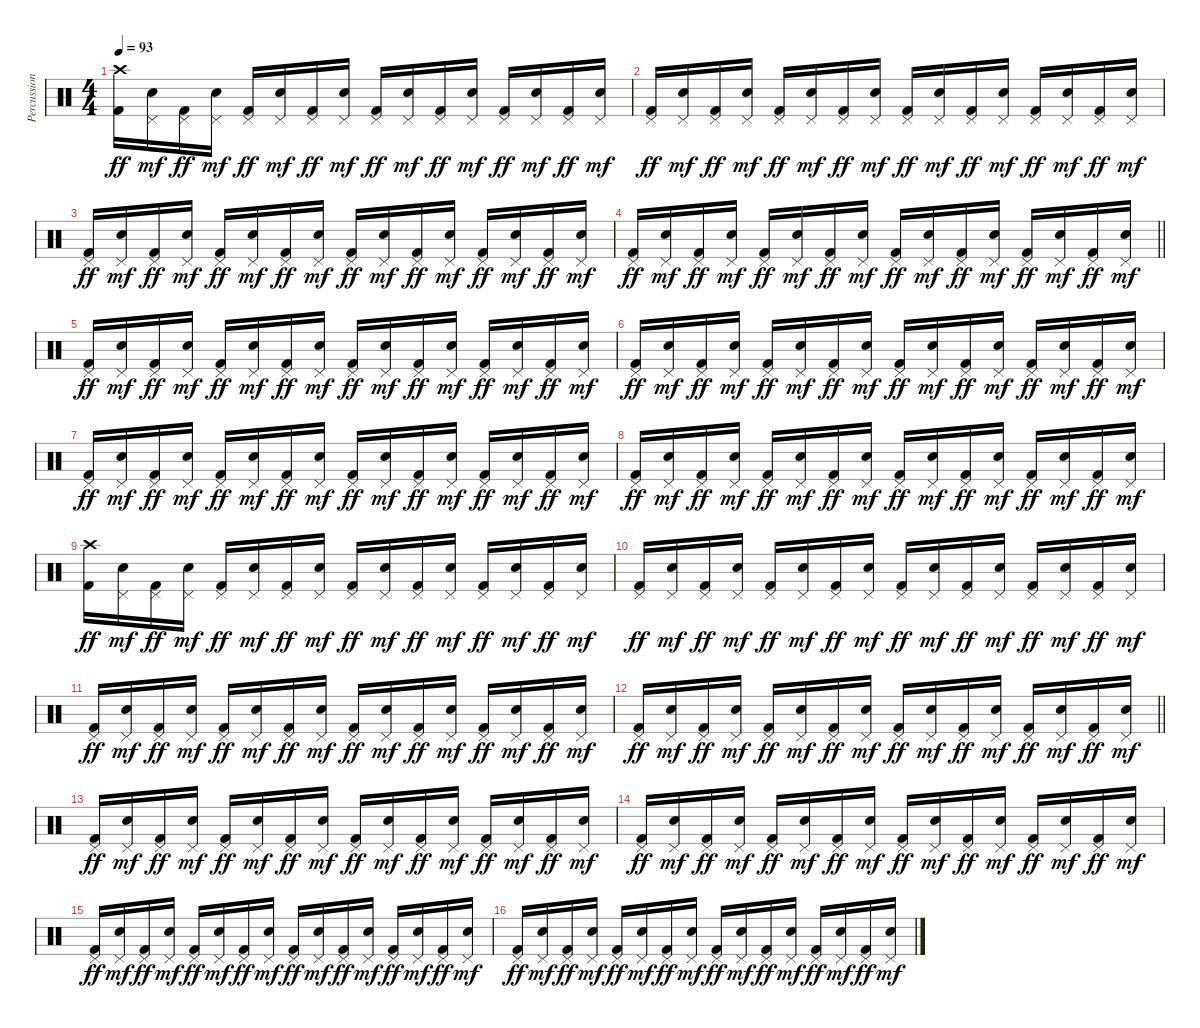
\track ("Percussion" "Percussion") {instrument percussion}
\staff {score}
\articulation defaults
\ts (4 4)
\tempo 93
\clef neutral
\ks c
("Crash high (hit)" "Kick (hit) 2").16{dy ff} ("Pedal Hi-Hat (hit)" "Electric Snare (hit)").16{dy mf} ("Pedal Hi-Hat (hit)" "Kick (hit) 2").16{dy ff} ("Pedal Hi-Hat (hit)" "Electric Snare (hit)").16{dy mf} ("Pedal Hi-Hat (hit)" "Kick (hit) 2").16{dy ff} ("Pedal Hi-Hat (hit)" "Electric Snare (hit)").16{dy mf} ("Pedal Hi-Hat (hit)" "Kick (hit) 2").16{dy ff} ("Pedal Hi-Hat (hit)" "Electric Snare (hit)").16{dy mf} ("Pedal Hi-Hat (hit)" "Kick (hit) 2").16{dy ff} ("Pedal Hi-Hat (hit)" "Electric Snare (hit)").16{dy mf} ("Pedal Hi-Hat (hit)" "Kick (hit) 2").16{dy ff} ("Pedal Hi-Hat (hit)" "Electric Snare (hit)").16{dy mf} ("Pedal Hi-Hat (hit)" "Kick (hit) 2").16{dy ff} ("Pedal Hi-Hat (hit)" "Electric Snare (hit)").16{dy mf} ("Pedal Hi-Hat (hit)" "Kick (hit) 2").16{dy ff} ("Pedal Hi-Hat (hit)" "Electric Snare (hit)").16{dy mf} |
("Pedal Hi-Hat (hit)" "Kick (hit) 2").16{dy ff} ("Pedal Hi-Hat (hit)" "Electric Snare (hit)").16{dy mf} ("Pedal Hi-Hat (hit)" "Kick (hit) 2").16{dy ff} ("Pedal Hi-Hat (hit)" "Electric Snare (hit)").16{dy mf} ("Pedal Hi-Hat (hit)" "Kick (hit) 2").16{dy ff} ("Pedal Hi-Hat (hit)" "Electric Snare (hit)").16{dy mf} ("Pedal Hi-Hat (hit)" "Kick (hit) 2").16{dy ff} ("Pedal Hi-Hat (hit)" "Electric Snare (hit)").16{dy mf} ("Pedal Hi-Hat (hit)" "Kick (hit) 2").16{dy ff} ("Pedal Hi-Hat (hit)" "Electric Snare (hit)").16{dy mf} ("Pedal Hi-Hat (hit)" "Kick (hit) 2").16{dy ff} ("Pedal Hi-Hat (hit)" "Electric Snare (hit)").16{dy mf} ("Pedal Hi-Hat (hit)" "Kick (hit) 2").16{dy ff} ("Pedal Hi-Hat (hit)" "Electric Snare (hit)").16{dy mf} ("Pedal Hi-Hat (hit)" "Kick (hit) 2").16{dy ff} ("Pedal Hi-Hat (hit)" "Electric Snare (hit)").16{dy mf} |
("Pedal Hi-Hat (hit)" "Kick (hit) 2").16{dy ff} ("Pedal Hi-Hat (hit)" "Electric Snare (hit)").16{dy mf} ("Pedal Hi-Hat (hit)" "Kick (hit) 2").16{dy ff} ("Pedal Hi-Hat (hit)" "Electric Snare (hit)").16{dy mf} ("Pedal Hi-Hat (hit)" "Kick (hit) 2").16{dy ff} ("Pedal Hi-Hat (hit)" "Electric Snare (hit)").16{dy mf} ("Pedal Hi-Hat (hit)" "Kick (hit) 2").16{dy ff} ("Pedal Hi-Hat (hit)" "Electric Snare (hit)").16{dy mf} ("Pedal Hi-Hat (hit)" "Kick (hit) 2").16{dy ff} ("Pedal Hi-Hat (hit)" "Electric Snare (hit)").16{dy mf} ("Pedal Hi-Hat (hit)" "Kick (hit) 2").16{dy ff} ("Pedal Hi-Hat (hit)" "Electric Snare (hit)").16{dy mf} ("Pedal Hi-Hat (hit)" "Kick (hit) 2").16{dy ff} ("Pedal Hi-Hat (hit)" "Electric Snare (hit)").16{dy mf} ("Pedal Hi-Hat (hit)" "Kick (hit) 2").16{dy ff} ("Pedal Hi-Hat (hit)" "Electric Snare (hit)").16{dy mf} |
\barLineRight lightlight
("Pedal Hi-Hat (hit)" "Kick (hit) 2").16{dy ff} ("Pedal Hi-Hat (hit)" "Electric Snare (hit)").16{dy mf} ("Pedal Hi-Hat (hit)" "Kick (hit) 2").16{dy ff} ("Pedal Hi-Hat (hit)" "Electric Snare (hit)").16{dy mf} ("Pedal Hi-Hat (hit)" "Kick (hit) 2").16{dy ff} ("Pedal Hi-Hat (hit)" "Electric Snare (hit)").16{dy mf} ("Pedal Hi-Hat (hit)" "Kick (hit) 2").16{dy ff} ("Pedal Hi-Hat (hit)" "Electric Snare (hit)").16{dy mf} ("Pedal Hi-Hat (hit)" "Kick (hit) 2").16{dy ff} ("Pedal Hi-Hat (hit)" "Electric Snare (hit)").16{dy mf} ("Pedal Hi-Hat (hit)" "Kick (hit) 2").16{dy ff} ("Pedal Hi-Hat (hit)" "Electric Snare (hit)").16{dy mf} ("Pedal Hi-Hat (hit)" "Kick (hit) 2").16{dy ff} ("Pedal Hi-Hat (hit)" "Electric Snare (hit)").16{dy mf} ("Pedal Hi-Hat (hit)" "Kick (hit) 2").16{dy ff} ("Pedal Hi-Hat (hit)" "Electric Snare (hit)").16{dy mf} |
("Pedal Hi-Hat (hit)" "Kick (hit) 2").16{dy ff} ("Pedal Hi-Hat (hit)" "Electric Snare (hit)").16{dy mf} ("Pedal Hi-Hat (hit)" "Kick (hit) 2").16{dy ff} ("Pedal Hi-Hat (hit)" "Electric Snare (hit)").16{dy mf} ("Pedal Hi-Hat (hit)" "Kick (hit) 2").16{dy ff} ("Pedal Hi-Hat (hit)" "Electric Snare (hit)").16{dy mf} ("Pedal Hi-Hat (hit)" "Kick (hit) 2").16{dy ff} ("Pedal Hi-Hat (hit)" "Electric Snare (hit)").16{dy mf} ("Pedal Hi-Hat (hit)" "Kick (hit) 2").16{dy ff} ("Pedal Hi-Hat (hit)" "Electric Snare (hit)").16{dy mf} ("Pedal Hi-Hat (hit)" "Kick (hit) 2").16{dy ff} ("Pedal Hi-Hat (hit)" "Electric Snare (hit)").16{dy mf} ("Pedal Hi-Hat (hit)" "Kick (hit) 2").16{dy ff} ("Pedal Hi-Hat (hit)" "Electric Snare (hit)").16{dy mf} ("Pedal Hi-Hat (hit)" "Kick (hit) 2").16{dy ff} ("Pedal Hi-Hat (hit)" "Electric Snare (hit)").16{dy mf} |
("Pedal Hi-Hat (hit)" "Kick (hit) 2").16{dy ff} ("Pedal Hi-Hat (hit)" "Electric Snare (hit)").16{dy mf} ("Pedal Hi-Hat (hit)" "Kick (hit) 2").16{dy ff} ("Pedal Hi-Hat (hit)" "Electric Snare (hit)").16{dy mf} ("Pedal Hi-Hat (hit)" "Kick (hit) 2").16{dy ff} ("Pedal Hi-Hat (hit)" "Electric Snare (hit)").16{dy mf} ("Pedal Hi-Hat (hit)" "Kick (hit) 2").16{dy ff} ("Pedal Hi-Hat (hit)" "Electric Snare (hit)").16{dy mf} ("Pedal Hi-Hat (hit)" "Kick (hit) 2").16{dy ff} ("Pedal Hi-Hat (hit)" "Electric Snare (hit)").16{dy mf} ("Pedal Hi-Hat (hit)" "Kick (hit) 2").16{dy ff} ("Pedal Hi-Hat (hit)" "Electric Snare (hit)").16{dy mf} ("Pedal Hi-Hat (hit)" "Kick (hit) 2").16{dy ff} ("Pedal Hi-Hat (hit)" "Electric Snare (hit)").16{dy mf} ("Pedal Hi-Hat (hit)" "Kick (hit) 2").16{dy ff} ("Pedal Hi-Hat (hit)" "Electric Snare (hit)").16{dy mf} |
("Pedal Hi-Hat (hit)" "Kick (hit) 2").16{dy ff} ("Pedal Hi-Hat (hit)" "Electric Snare (hit)").16{dy mf} ("Pedal Hi-Hat (hit)" "Kick (hit) 2").16{dy ff} ("Pedal Hi-Hat (hit)" "Electric Snare (hit)").16{dy mf} ("Pedal Hi-Hat (hit)" "Kick (hit) 2").16{dy ff} ("Pedal Hi-Hat (hit)" "Electric Snare (hit)").16{dy mf} ("Pedal Hi-Hat (hit)" "Kick (hit) 2").16{dy ff} ("Pedal Hi-Hat (hit)" "Electric Snare (hit)").16{dy mf} ("Pedal Hi-Hat (hit)" "Kick (hit) 2").16{dy ff} ("Pedal Hi-Hat (hit)" "Electric Snare (hit)").16{dy mf} ("Pedal Hi-Hat (hit)" "Kick (hit) 2").16{dy ff} ("Pedal Hi-Hat (hit)" "Electric Snare (hit)").16{dy mf} ("Pedal Hi-Hat (hit)" "Kick (hit) 2").16{dy ff} ("Pedal Hi-Hat (hit)" "Electric Snare (hit)").16{dy mf} ("Pedal Hi-Hat (hit)" "Kick (hit) 2").16{dy ff} ("Pedal Hi-Hat (hit)" "Electric Snare (hit)").16{dy mf} |
("Pedal Hi-Hat (hit)" "Kick (hit) 2").16{dy ff} ("Pedal Hi-Hat (hit)" "Electric Snare (hit)").16{dy mf} ("Pedal Hi-Hat (hit)" "Kick (hit) 2").16{dy ff} ("Pedal Hi-Hat (hit)" "Electric Snare (hit)").16{dy mf} ("Pedal Hi-Hat (hit)" "Kick (hit) 2").16{dy ff} ("Pedal Hi-Hat (hit)" "Electric Snare (hit)").16{dy mf} ("Pedal Hi-Hat (hit)" "Kick (hit) 2").16{dy ff} ("Pedal Hi-Hat (hit)" "Electric Snare (hit)").16{dy mf} ("Pedal Hi-Hat (hit)" "Kick (hit) 2").16{dy ff} ("Pedal Hi-Hat (hit)" "Electric Snare (hit)").16{dy mf} ("Pedal Hi-Hat (hit)" "Kick (hit) 2").16{dy ff} ("Pedal Hi-Hat (hit)" "Electric Snare (hit)").16{dy mf} ("Pedal Hi-Hat (hit)" "Kick (hit) 2").16{dy ff} ("Pedal Hi-Hat (hit)" "Electric Snare (hit)").16{dy mf} ("Pedal Hi-Hat (hit)" "Kick (hit) 2").16{dy ff} ("Pedal Hi-Hat (hit)" "Electric Snare (hit)").16{dy mf} |
("Crash high (hit)" "Kick (hit) 2").16{dy ff} ("Pedal Hi-Hat (hit)" "Electric Snare (hit)").16{dy mf} ("Pedal Hi-Hat (hit)" "Kick (hit) 2").16{dy ff} ("Pedal Hi-Hat (hit)" "Electric Snare (hit)").16{dy mf} ("Pedal Hi-Hat (hit)" "Kick (hit) 2").16{dy ff} ("Pedal Hi-Hat (hit)" "Electric Snare (hit)").16{dy mf} ("Pedal Hi-Hat (hit)" "Kick (hit) 2").16{dy ff} ("Pedal Hi-Hat (hit)" "Electric Snare (hit)").16{dy mf} ("Pedal Hi-Hat (hit)" "Kick (hit) 2").16{dy ff} ("Pedal Hi-Hat (hit)" "Electric Snare (hit)").16{dy mf} ("Pedal Hi-Hat (hit)" "Kick (hit) 2").16{dy ff} ("Pedal Hi-Hat (hit)" "Electric Snare (hit)").16{dy mf} ("Pedal Hi-Hat (hit)" "Kick (hit) 2").16{dy ff} ("Pedal Hi-Hat (hit)" "Electric Snare (hit)").16{dy mf} ("Pedal Hi-Hat (hit)" "Kick (hit) 2").16{dy ff} ("Pedal Hi-Hat (hit)" "Electric Snare (hit)").16{dy mf} |
("Pedal Hi-Hat (hit)" "Kick (hit) 2").16{dy ff} ("Pedal Hi-Hat (hit)" "Electric Snare (hit)").16{dy mf} ("Pedal Hi-Hat (hit)" "Kick (hit) 2").16{dy ff} ("Pedal Hi-Hat (hit)" "Electric Snare (hit)").16{dy mf} ("Pedal Hi-Hat (hit)" "Kick (hit) 2").16{dy ff} ("Pedal Hi-Hat (hit)" "Electric Snare (hit)").16{dy mf} ("Pedal Hi-Hat (hit)" "Kick (hit) 2").16{dy ff} ("Pedal Hi-Hat (hit)" "Electric Snare (hit)").16{dy mf} ("Pedal Hi-Hat (hit)" "Kick (hit) 2").16{dy ff} ("Pedal Hi-Hat (hit)" "Electric Snare (hit)").16{dy mf} ("Pedal Hi-Hat (hit)" "Kick (hit) 2").16{dy ff} ("Pedal Hi-Hat (hit)" "Electric Snare (hit)").16{dy mf} ("Pedal Hi-Hat (hit)" "Kick (hit) 2").16{dy ff} ("Pedal Hi-Hat (hit)" "Electric Snare (hit)").16{dy mf} ("Pedal Hi-Hat (hit)" "Kick (hit) 2").16{dy ff} ("Pedal Hi-Hat (hit)" "Electric Snare (hit)").16{dy mf} |
("Pedal Hi-Hat (hit)" "Kick (hit) 2").16{dy ff} ("Pedal Hi-Hat (hit)" "Electric Snare (hit)").16{dy mf} ("Pedal Hi-Hat (hit)" "Kick (hit) 2").16{dy ff} ("Pedal Hi-Hat (hit)" "Electric Snare (hit)").16{dy mf} ("Pedal Hi-Hat (hit)" "Kick (hit) 2").16{dy ff} ("Pedal Hi-Hat (hit)" "Electric Snare (hit)").16{dy mf} ("Pedal Hi-Hat (hit)" "Kick (hit) 2").16{dy ff} ("Pedal Hi-Hat (hit)" "Electric Snare (hit)").16{dy mf} ("Pedal Hi-Hat (hit)" "Kick (hit) 2").16{dy ff} ("Pedal Hi-Hat (hit)" "Electric Snare (hit)").16{dy mf} ("Pedal Hi-Hat (hit)" "Kick (hit) 2").16{dy ff} ("Pedal Hi-Hat (hit)" "Electric Snare (hit)").16{dy mf} ("Pedal Hi-Hat (hit)" "Kick (hit) 2").16{dy ff} ("Pedal Hi-Hat (hit)" "Electric Snare (hit)").16{dy mf} ("Pedal Hi-Hat (hit)" "Kick (hit) 2").16{dy ff} ("Pedal Hi-Hat (hit)" "Electric Snare (hit)").16{dy mf} |
\barLineRight lightlight
("Pedal Hi-Hat (hit)" "Kick (hit) 2").16{dy ff} ("Pedal Hi-Hat (hit)" "Electric Snare (hit)").16{dy mf} ("Pedal Hi-Hat (hit)" "Kick (hit) 2").16{dy ff} ("Pedal Hi-Hat (hit)" "Electric Snare (hit)").16{dy mf} ("Pedal Hi-Hat (hit)" "Kick (hit) 2").16{dy ff} ("Pedal Hi-Hat (hit)" "Electric Snare (hit)").16{dy mf} ("Pedal Hi-Hat (hit)" "Kick (hit) 2").16{dy ff} ("Pedal Hi-Hat (hit)" "Electric Snare (hit)").16{dy mf} ("Pedal Hi-Hat (hit)" "Kick (hit) 2").16{dy ff} ("Pedal Hi-Hat (hit)" "Electric Snare (hit)").16{dy mf} ("Pedal Hi-Hat (hit)" "Kick (hit) 2").16{dy ff} ("Pedal Hi-Hat (hit)" "Electric Snare (hit)").16{dy mf} ("Pedal Hi-Hat (hit)" "Kick (hit) 2").16{dy ff} ("Pedal Hi-Hat (hit)" "Electric Snare (hit)").16{dy mf} ("Pedal Hi-Hat (hit)" "Kick (hit) 2").16{dy ff} ("Pedal Hi-Hat (hit)" "Electric Snare (hit)").16{dy mf} |
("Pedal Hi-Hat (hit)" "Kick (hit) 2").16{dy ff} ("Pedal Hi-Hat (hit)" "Electric Snare (hit)").16{dy mf} ("Pedal Hi-Hat (hit)" "Kick (hit) 2").16{dy ff} ("Pedal Hi-Hat (hit)" "Electric Snare (hit)").16{dy mf} ("Pedal Hi-Hat (hit)" "Kick (hit) 2").16{dy ff} ("Pedal Hi-Hat (hit)" "Electric Snare (hit)").16{dy mf} ("Pedal Hi-Hat (hit)" "Kick (hit) 2").16{dy ff} ("Pedal Hi-Hat (hit)" "Electric Snare (hit)").16{dy mf} ("Pedal Hi-Hat (hit)" "Kick (hit) 2").16{dy ff} ("Pedal Hi-Hat (hit)" "Electric Snare (hit)").16{dy mf} ("Pedal Hi-Hat (hit)" "Kick (hit) 2").16{dy ff} ("Pedal Hi-Hat (hit)" "Electric Snare (hit)").16{dy mf} ("Pedal Hi-Hat (hit)" "Kick (hit) 2").16{dy ff} ("Pedal Hi-Hat (hit)" "Electric Snare (hit)").16{dy mf} ("Pedal Hi-Hat (hit)" "Kick (hit) 2").16{dy ff} ("Pedal Hi-Hat (hit)" "Electric Snare (hit)").16{dy mf} |
("Pedal Hi-Hat (hit)" "Kick (hit) 2").16{dy ff} ("Pedal Hi-Hat (hit)" "Electric Snare (hit)").16{dy mf} ("Pedal Hi-Hat (hit)" "Kick (hit) 2").16{dy ff} ("Pedal Hi-Hat (hit)" "Electric Snare (hit)").16{dy mf} ("Pedal Hi-Hat (hit)" "Kick (hit) 2").16{dy ff} ("Pedal Hi-Hat (hit)" "Electric Snare (hit)").16{dy mf} ("Pedal Hi-Hat (hit)" "Kick (hit) 2").16{dy ff} ("Pedal Hi-Hat (hit)" "Electric Snare (hit)").16{dy mf} ("Pedal Hi-Hat (hit)" "Kick (hit) 2").16{dy ff} ("Pedal Hi-Hat (hit)" "Electric Snare (hit)").16{dy mf} ("Pedal Hi-Hat (hit)" "Kick (hit) 2").16{dy ff} ("Pedal Hi-Hat (hit)" "Electric Snare (hit)").16{dy mf} ("Pedal Hi-Hat (hit)" "Kick (hit) 2").16{dy ff} ("Pedal Hi-Hat (hit)" "Electric Snare (hit)").16{dy mf} ("Pedal Hi-Hat (hit)" "Kick (hit) 2").16{dy ff} ("Pedal Hi-Hat (hit)" "Electric Snare (hit)").16{dy mf} |
("Pedal Hi-Hat (hit)" "Kick (hit) 2").16{dy ff} ("Pedal Hi-Hat (hit)" "Electric Snare (hit)").16{dy mf} ("Pedal Hi-Hat (hit)" "Kick (hit) 2").16{dy ff} ("Pedal Hi-Hat (hit)" "Electric Snare (hit)").16{dy mf} ("Pedal Hi-Hat (hit)" "Kick (hit) 2").16{dy ff} ("Pedal Hi-Hat (hit)" "Electric Snare (hit)").16{dy mf} ("Pedal Hi-Hat (hit)" "Kick (hit) 2").16{dy ff} ("Pedal Hi-Hat (hit)" "Electric Snare (hit)").16{dy mf} ("Pedal Hi-Hat (hit)" "Kick (hit) 2").16{dy ff} ("Pedal Hi-Hat (hit)" "Electric Snare (hit)").16{dy mf} ("Pedal Hi-Hat (hit)" "Kick (hit) 2").16{dy ff} ("Pedal Hi-Hat (hit)" "Electric Snare (hit)").16{dy mf} ("Pedal Hi-Hat (hit)" "Kick (hit) 2").16{dy ff} ("Pedal Hi-Hat (hit)" "Electric Snare (hit)").16{dy mf} ("Pedal Hi-Hat (hit)" "Kick (hit) 2").16{dy ff} ("Pedal Hi-Hat (hit)" "Electric Snare (hit)").16{dy mf} |
("Pedal Hi-Hat (hit)" "Kick (hit) 2").16{dy ff} ("Pedal Hi-Hat (hit)" "Electric Snare (hit)").16{dy mf} ("Pedal Hi-Hat (hit)" "Kick (hit) 2").16{dy ff} ("Pedal Hi-Hat (hit)" "Electric Snare (hit)").16{dy mf} ("Pedal Hi-Hat (hit)" "Kick (hit) 2").16{dy ff} ("Pedal Hi-Hat (hit)" "Electric Snare (hit)").16{dy mf} ("Pedal Hi-Hat (hit)" "Kick (hit) 2").16{dy ff} ("Pedal Hi-Hat (hit)" "Electric Snare (hit)").16{dy mf} ("Pedal Hi-Hat (hit)" "Kick (hit) 2").16{dy ff} ("Pedal Hi-Hat (hit)" "Electric Snare (hit)").16{dy mf} ("Pedal Hi-Hat (hit)" "Kick (hit) 2").16{dy ff} ("Pedal Hi-Hat (hit)" "Electric Snare (hit)").16{dy mf} ("Pedal Hi-Hat (hit)" "Kick (hit) 2").16{dy ff} ("Pedal Hi-Hat (hit)" "Electric Snare (hit)").16{dy mf} ("Pedal Hi-Hat (hit)" "Kick (hit) 2").16{dy ff} ("Pedal Hi-Hat (hit)" "Electric Snare (hit)").16{dy mf}
